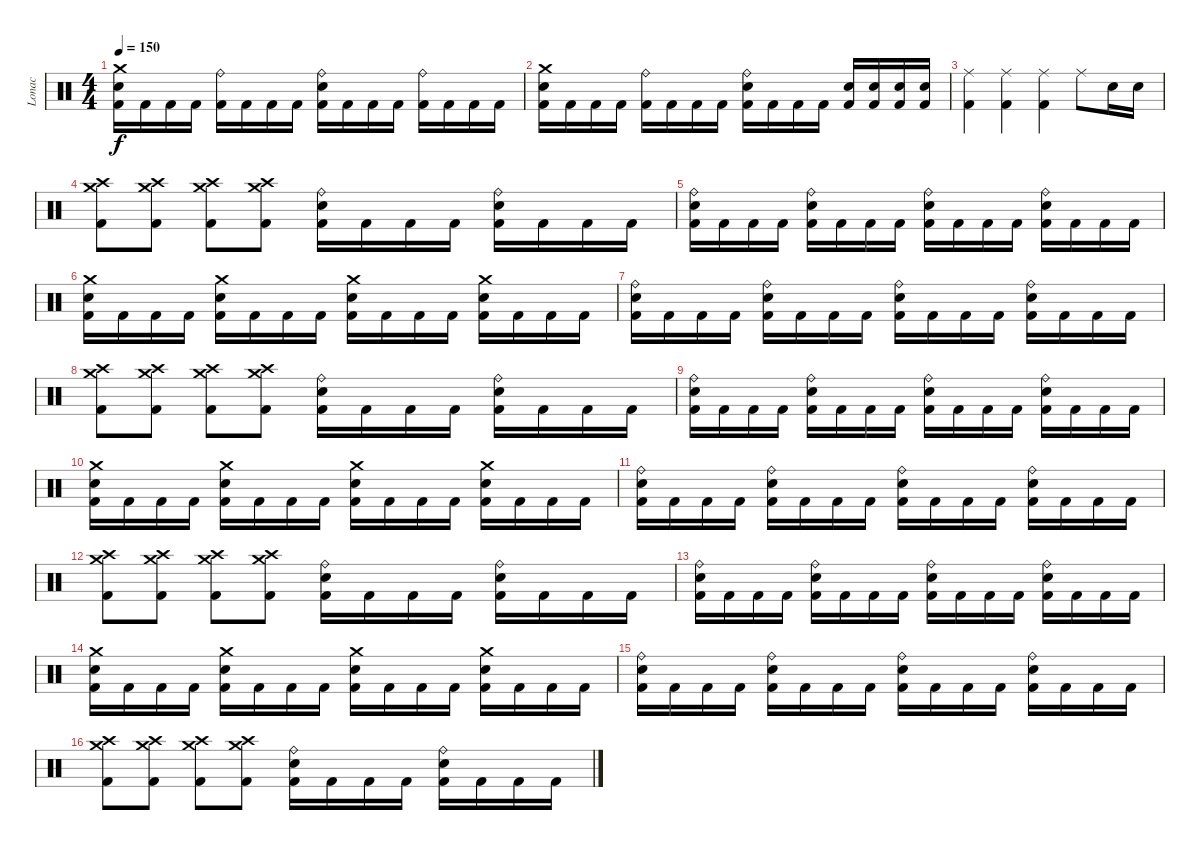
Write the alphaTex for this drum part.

\track ("Lonac" "Lonac") {instrument percussion}
\staff {score}
\articulation defaults
\ts (4 4)
\tempo 150
\clef neutral
\ks c
("Kick (hit) 2" "Snare (hit) 2" "Crash medium (hit)").16{dy f} "Kick (hit) 2".16 "Kick (hit) 2".16 "Kick (hit) 2".16 ("Kick (hit) 2" "Ride (bell)").16 "Kick (hit) 2".16 "Kick (hit) 2".16 "Kick (hit) 2".16 ("Kick (hit) 2" "Snare (hit) 2" "Ride (bell)").16 "Kick (hit) 2".16 "Kick (hit) 2".16 "Kick (hit) 2".16 ("Kick (hit) 2" "Ride (bell)").16 "Kick (hit) 2".16 "Kick (hit) 2".16 "Kick (hit) 2".16 |
("Kick (hit) 2" "Snare (hit) 2" "Crash medium (hit)").16 "Kick (hit) 2".16 "Kick (hit) 2".16 "Kick (hit) 2".16 ("Kick (hit) 2" "Ride (bell)").16 "Kick (hit) 2".16 "Kick (hit) 2".16 "Kick (hit) 2".16 ("Kick (hit) 2" "Snare (hit) 2" "Ride (bell)").16 "Kick (hit) 2".16 "Kick (hit) 2".16 "Kick (hit) 2".16 ("Kick (hit) 2" "Snare (hit) 2").16 ("Kick (hit) 2" "Snare (hit) 2").16 ("Kick (hit) 2" "Snare (hit) 2").16 ("Kick (hit) 2" "Snare (hit) 2").16 |
("Kick (hit) 2" "Ride (middle)").4 ("Kick (hit) 2" "Ride (middle)").4 ("Kick (hit) 2" "Ride (middle)").4 "Ride (middle)".8 "Snare (hit) 2".16 "Snare (hit) 2".16 |
("Crash high (hit)" "Crash medium (hit)" "Kick (hit) 2").8 ("Crash high (hit)" "Crash medium (hit)" "Kick (hit) 2").8 ("Crash high (hit)" "Crash medium (hit)" "Kick (hit) 2").8 ("Crash high (hit)" "Crash medium (hit)" "Kick (hit) 2").8 ("Kick (hit) 2" "Snare (hit) 2" "Ride (bell)").16 "Kick (hit) 2".16 "Kick (hit) 2".16 "Kick (hit) 2".16 ("Kick (hit) 2" "Snare (hit) 2" "Ride (bell)").16 "Kick (hit) 2".16 "Kick (hit) 2".16 "Kick (hit) 2".16 |
("Kick (hit) 2" "Snare (hit) 2" "Ride (bell)").16 "Kick (hit) 2".16 "Kick (hit) 2".16 "Kick (hit) 2".16 ("Kick (hit) 2" "Snare (hit) 2" "Ride (bell)").16 "Kick (hit) 2".16 "Kick (hit) 2".16 "Kick (hit) 2".16 ("Kick (hit) 2" "Snare (hit) 2" "Ride (bell)").16 "Kick (hit) 2".16 "Kick (hit) 2".16 "Kick (hit) 2".16 ("Kick (hit) 2" "Snare (hit) 2" "Ride (bell)").16 "Kick (hit) 2".16 "Kick (hit) 2".16 "Kick (hit) 2".16 |
("Kick (hit) 2" "Snare (hit) 2" "Crash medium (hit)").16 "Kick (hit) 2".16 "Kick (hit) 2".16 "Kick (hit) 2".16 ("Kick (hit) 2" "Snare (hit) 2" "Crash medium (hit)").16 "Kick (hit) 2".16 "Kick (hit) 2".16 "Kick (hit) 2".16 ("Kick (hit) 2" "Snare (hit) 2" "Crash medium (hit)").16 "Kick (hit) 2".16 "Kick (hit) 2".16 "Kick (hit) 2".16 ("Kick (hit) 2" "Snare (hit) 2" "Crash medium (hit)").16 "Kick (hit) 2".16 "Kick (hit) 2".16 "Kick (hit) 2".16 |
("Kick (hit) 2" "Snare (hit) 2" "Ride (bell)").16 "Kick (hit) 2".16 "Kick (hit) 2".16 "Kick (hit) 2".16 ("Kick (hit) 2" "Snare (hit) 2" "Ride (bell)").16 "Kick (hit) 2".16 "Kick (hit) 2".16 "Kick (hit) 2".16 ("Kick (hit) 2" "Snare (hit) 2" "Ride (bell)").16 "Kick (hit) 2".16 "Kick (hit) 2".16 "Kick (hit) 2".16 ("Kick (hit) 2" "Snare (hit) 2" "Ride (bell)").16 "Kick (hit) 2".16 "Kick (hit) 2".16 "Kick (hit) 2".16 |
("Crash high (hit)" "Crash medium (hit)" "Kick (hit) 2").8 ("Crash high (hit)" "Crash medium (hit)" "Kick (hit) 2").8 ("Crash high (hit)" "Crash medium (hit)" "Kick (hit) 2").8 ("Crash high (hit)" "Crash medium (hit)" "Kick (hit) 2").8 ("Kick (hit) 2" "Snare (hit) 2" "Ride (bell)").16 "Kick (hit) 2".16 "Kick (hit) 2".16 "Kick (hit) 2".16 ("Kick (hit) 2" "Snare (hit) 2" "Ride (bell)").16 "Kick (hit) 2".16 "Kick (hit) 2".16 "Kick (hit) 2".16 |
("Kick (hit) 2" "Snare (hit) 2" "Ride (bell)").16 "Kick (hit) 2".16 "Kick (hit) 2".16 "Kick (hit) 2".16 ("Kick (hit) 2" "Snare (hit) 2" "Ride (bell)").16 "Kick (hit) 2".16 "Kick (hit) 2".16 "Kick (hit) 2".16 ("Kick (hit) 2" "Snare (hit) 2" "Ride (bell)").16 "Kick (hit) 2".16 "Kick (hit) 2".16 "Kick (hit) 2".16 ("Kick (hit) 2" "Snare (hit) 2" "Ride (bell)").16 "Kick (hit) 2".16 "Kick (hit) 2".16 "Kick (hit) 2".16 |
("Kick (hit) 2" "Snare (hit) 2" "Crash medium (hit)").16 "Kick (hit) 2".16 "Kick (hit) 2".16 "Kick (hit) 2".16 ("Kick (hit) 2" "Snare (hit) 2" "Crash medium (hit)").16 "Kick (hit) 2".16 "Kick (hit) 2".16 "Kick (hit) 2".16 ("Kick (hit) 2" "Snare (hit) 2" "Crash medium (hit)").16 "Kick (hit) 2".16 "Kick (hit) 2".16 "Kick (hit) 2".16 ("Kick (hit) 2" "Snare (hit) 2" "Crash medium (hit)").16 "Kick (hit) 2".16 "Kick (hit) 2".16 "Kick (hit) 2".16 |
("Kick (hit) 2" "Snare (hit) 2" "Ride (bell)").16 "Kick (hit) 2".16 "Kick (hit) 2".16 "Kick (hit) 2".16 ("Kick (hit) 2" "Snare (hit) 2" "Ride (bell)").16 "Kick (hit) 2".16 "Kick (hit) 2".16 "Kick (hit) 2".16 ("Kick (hit) 2" "Snare (hit) 2" "Ride (bell)").16 "Kick (hit) 2".16 "Kick (hit) 2".16 "Kick (hit) 2".16 ("Kick (hit) 2" "Snare (hit) 2" "Ride (bell)").16 "Kick (hit) 2".16 "Kick (hit) 2".16 "Kick (hit) 2".16 |
("Crash high (hit)" "Crash medium (hit)" "Kick (hit) 2").8 ("Crash high (hit)" "Crash medium (hit)" "Kick (hit) 2").8 ("Crash high (hit)" "Crash medium (hit)" "Kick (hit) 2").8 ("Crash high (hit)" "Crash medium (hit)" "Kick (hit) 2").8 ("Kick (hit) 2" "Snare (hit) 2" "Ride (bell)").16 "Kick (hit) 2".16 "Kick (hit) 2".16 "Kick (hit) 2".16 ("Kick (hit) 2" "Snare (hit) 2" "Ride (bell)").16 "Kick (hit) 2".16 "Kick (hit) 2".16 "Kick (hit) 2".16 |
("Kick (hit) 2" "Snare (hit) 2" "Ride (bell)").16 "Kick (hit) 2".16 "Kick (hit) 2".16 "Kick (hit) 2".16 ("Kick (hit) 2" "Snare (hit) 2" "Ride (bell)").16 "Kick (hit) 2".16 "Kick (hit) 2".16 "Kick (hit) 2".16 ("Kick (hit) 2" "Snare (hit) 2" "Ride (bell)").16 "Kick (hit) 2".16 "Kick (hit) 2".16 "Kick (hit) 2".16 ("Kick (hit) 2" "Snare (hit) 2" "Ride (bell)").16 "Kick (hit) 2".16 "Kick (hit) 2".16 "Kick (hit) 2".16 |
("Kick (hit) 2" "Snare (hit) 2" "Crash medium (hit)").16 "Kick (hit) 2".16 "Kick (hit) 2".16 "Kick (hit) 2".16 ("Kick (hit) 2" "Snare (hit) 2" "Crash medium (hit)").16 "Kick (hit) 2".16 "Kick (hit) 2".16 "Kick (hit) 2".16 ("Kick (hit) 2" "Snare (hit) 2" "Crash medium (hit)").16 "Kick (hit) 2".16 "Kick (hit) 2".16 "Kick (hit) 2".16 ("Kick (hit) 2" "Snare (hit) 2" "Crash medium (hit)").16 "Kick (hit) 2".16 "Kick (hit) 2".16 "Kick (hit) 2".16 |
("Kick (hit) 2" "Snare (hit) 2" "Ride (bell)").16 "Kick (hit) 2".16 "Kick (hit) 2".16 "Kick (hit) 2".16 ("Kick (hit) 2" "Snare (hit) 2" "Ride (bell)").16 "Kick (hit) 2".16 "Kick (hit) 2".16 "Kick (hit) 2".16 ("Kick (hit) 2" "Snare (hit) 2" "Ride (bell)").16 "Kick (hit) 2".16 "Kick (hit) 2".16 "Kick (hit) 2".16 ("Kick (hit) 2" "Snare (hit) 2" "Ride (bell)").16 "Kick (hit) 2".16 "Kick (hit) 2".16 "Kick (hit) 2".16 |
("Crash high (hit)" "Crash medium (hit)" "Kick (hit) 2").8 ("Crash high (hit)" "Crash medium (hit)" "Kick (hit) 2").8 ("Crash high (hit)" "Crash medium (hit)" "Kick (hit) 2").8 ("Crash high (hit)" "Crash medium (hit)" "Kick (hit) 2").8 ("Kick (hit) 2" "Snare (hit) 2" "Ride (bell)").16 "Kick (hit) 2".16 "Kick (hit) 2".16 "Kick (hit) 2".16 ("Kick (hit) 2" "Snare (hit) 2" "Ride (bell)").16 "Kick (hit) 2".16 "Kick (hit) 2".16 "Kick (hit) 2".16
